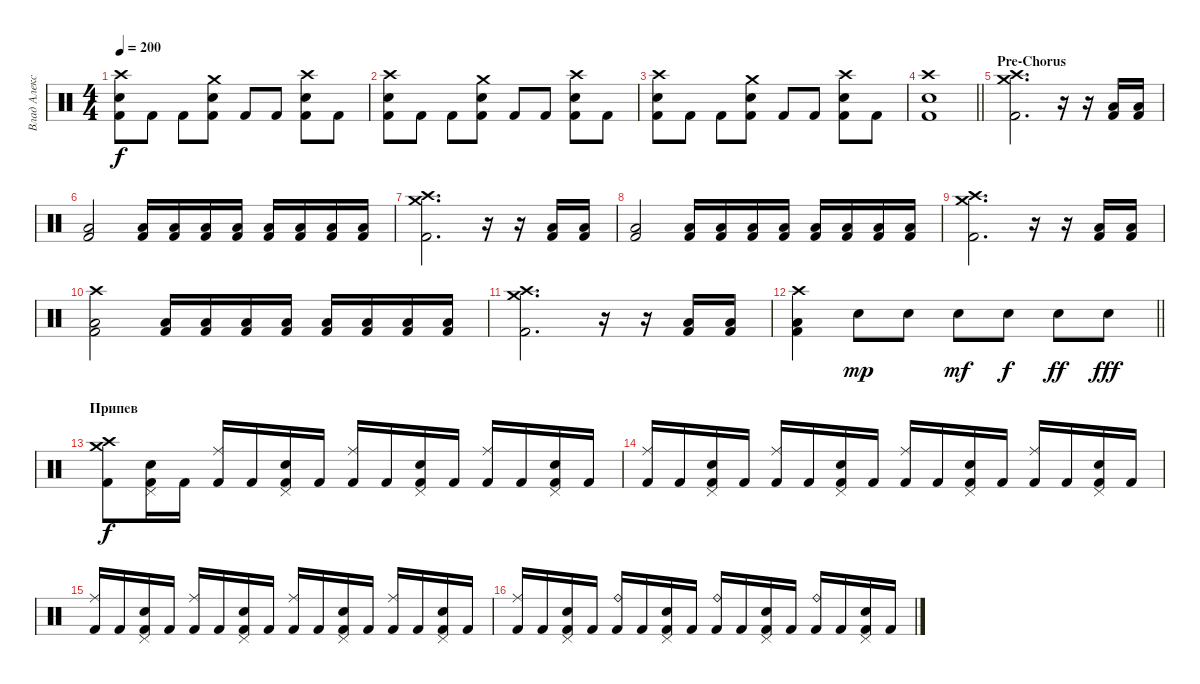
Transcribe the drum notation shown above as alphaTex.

\track ("Влад Алексеенко" "Влад Алекс") {instrument percussion}
\staff {score}
\articulation defaults
\ts (4 4)
\tempo 200
\clef neutral
\ks c
("Crash high (hit)" "Electric Snare (hit)" "Kick (hit) 2").8{dy f} "Kick (hit) 2".8 "Kick (hit) 2".8 ("Crash medium (hit)" "Electric Snare (hit)" "Kick (hit) 2").8 "Kick (hit) 2".8 "Kick (hit) 2".8 ("Crash high (hit)" "Electric Snare (hit)" "Kick (hit) 2").8 "Kick (hit) 2".8 |
("Crash high (hit)" "Electric Snare (hit)" "Kick (hit) 2").8 "Kick (hit) 2".8 "Kick (hit) 2".8 ("Crash medium (hit)" "Electric Snare (hit)" "Kick (hit) 2").8 "Kick (hit) 2".8 "Kick (hit) 2".8 ("Crash high (hit)" "Electric Snare (hit)" "Kick (hit) 2").8 "Kick (hit) 2".8 |
("Crash high (hit)" "Electric Snare (hit)" "Kick (hit) 2").8 "Kick (hit) 2".8 "Kick (hit) 2".8 ("Crash medium (hit)" "Electric Snare (hit)" "Kick (hit) 2").8 "Kick (hit) 2".8 "Kick (hit) 2".8 ("Crash high (hit)" "Electric Snare (hit)" "Kick (hit) 2").8 "Kick (hit) 2".8 |
\barLineRight lightlight
("Crash high (hit)" "Electric Snare (hit)" "Kick (hit) 2").1 |
\section ("" "Pre-Chorus")
("Crash high (hit)" "Crash medium (hit)" "Kick (hit) 2").2{d} r.16 r.16 ("Low Floor Tom (hit)" "Kick (hit) 2").16 ("Low Floor Tom (hit)" "Kick (hit) 2").16 |
("Low Floor Tom (hit)" "Kick (hit) 2").2 ("Low Floor Tom (hit)" "Kick (hit) 2").16 ("Low Floor Tom (hit)" "Kick (hit) 2").16 ("Low Floor Tom (hit)" "Kick (hit) 2").16 ("Low Floor Tom (hit)" "Kick (hit) 2").16 ("Low Floor Tom (hit)" "Kick (hit) 2").16 ("Low Floor Tom (hit)" "Kick (hit) 2").16 ("Low Floor Tom (hit)" "Kick (hit) 2").16 ("Low Floor Tom (hit)" "Kick (hit) 2").16 |
("Crash high (hit)" "Crash medium (hit)" "Kick (hit) 2").2{d} r.16 r.16 ("Low Floor Tom (hit)" "Kick (hit) 2").16 ("Low Floor Tom (hit)" "Kick (hit) 2").16 |
("Low Floor Tom (hit)" "Kick (hit) 2").2 ("Low Floor Tom (hit)" "Kick (hit) 2").16 ("Low Floor Tom (hit)" "Kick (hit) 2").16 ("Low Floor Tom (hit)" "Kick (hit) 2").16 ("Low Floor Tom (hit)" "Kick (hit) 2").16 ("Low Floor Tom (hit)" "Kick (hit) 2").16 ("Low Floor Tom (hit)" "Kick (hit) 2").16 ("Low Floor Tom (hit)" "Kick (hit) 2").16 ("Low Floor Tom (hit)" "Kick (hit) 2").16 |
("Crash high (hit)" "Crash medium (hit)" "Kick (hit) 2").2{d} r.16 r.16 ("Low Floor Tom (hit)" "Kick (hit) 2").16 ("Low Floor Tom (hit)" "Kick (hit) 2").16 |
("Crash high (hit)" "Low Floor Tom (hit)" "Kick (hit) 2").2 ("Low Floor Tom (hit)" "Kick (hit) 2").16 ("Low Floor Tom (hit)" "Kick (hit) 2").16 ("Low Floor Tom (hit)" "Kick (hit) 2").16 ("Low Floor Tom (hit)" "Kick (hit) 2").16 ("Low Floor Tom (hit)" "Kick (hit) 2").16 ("Low Floor Tom (hit)" "Kick (hit) 2").16 ("Low Floor Tom (hit)" "Kick (hit) 2").16 ("Low Floor Tom (hit)" "Kick (hit) 2").16 |
("Crash high (hit)" "Crash medium (hit)" "Kick (hit) 2").2{d} r.16 r.16 ("Low Floor Tom (hit)" "Kick (hit) 2").16 ("Low Floor Tom (hit)" "Kick (hit) 2").16 |
\barLineRight lightlight
("Crash high (hit)" "Low Floor Tom (hit)" "Kick (hit) 2").4 "Electric Snare (hit)".8{dy mp} "Electric Snare (hit)".8 "Electric Snare (hit)".8{dy mf} "Electric Snare (hit)".8{dy f} "Electric Snare (hit)".8{dy ff} "Electric Snare (hit)".8{dy fff} |
\section ("" "Припев")
("Crash high (hit)" "Crash medium (hit)" "Kick (hit) 2").8{dy f} ("Kick (hit) 2" "Electric Snare (hit)" "Pedal Hi-Hat (hit)").16 "Kick (hit) 2".16 ("Kick (hit) 2" "Ride (middle)").16 "Kick (hit) 2".16 ("Kick (hit) 2" "Electric Snare (hit)" "Pedal Hi-Hat (hit)").16 "Kick (hit) 2".16 ("Kick (hit) 2" "Ride (middle)").16 "Kick (hit) 2".16 ("Kick (hit) 2" "Electric Snare (hit)" "Pedal Hi-Hat (hit)").16 "Kick (hit) 2".16 ("Kick (hit) 2" "Ride (middle)").16 "Kick (hit) 2".16 ("Kick (hit) 2" "Electric Snare (hit)" "Pedal Hi-Hat (hit)").16 "Kick (hit) 2".16 |
("Kick (hit) 2" "Ride (middle)").16 "Kick (hit) 2".16 ("Kick (hit) 2" "Electric Snare (hit)" "Pedal Hi-Hat (hit)").16 "Kick (hit) 2".16 ("Kick (hit) 2" "Ride (middle)").16 "Kick (hit) 2".16 ("Kick (hit) 2" "Electric Snare (hit)" "Pedal Hi-Hat (hit)").16 "Kick (hit) 2".16 ("Kick (hit) 2" "Ride (middle)").16 "Kick (hit) 2".16 ("Kick (hit) 2" "Electric Snare (hit)" "Pedal Hi-Hat (hit)").16 "Kick (hit) 2".16 ("Kick (hit) 2" "Ride (middle)").16 "Kick (hit) 2".16 ("Kick (hit) 2" "Electric Snare (hit)" "Pedal Hi-Hat (hit)").16 "Kick (hit) 2".16 |
("Kick (hit) 2" "Ride (middle)").16 "Kick (hit) 2".16 ("Kick (hit) 2" "Electric Snare (hit)" "Pedal Hi-Hat (hit)").16 "Kick (hit) 2".16 ("Kick (hit) 2" "Ride (middle)").16 "Kick (hit) 2".16 ("Kick (hit) 2" "Electric Snare (hit)" "Pedal Hi-Hat (hit)").16 "Kick (hit) 2".16 ("Kick (hit) 2" "Ride (middle)").16 "Kick (hit) 2".16 ("Kick (hit) 2" "Electric Snare (hit)" "Pedal Hi-Hat (hit)").16 "Kick (hit) 2".16 ("Kick (hit) 2" "Ride (middle)").16 "Kick (hit) 2".16 ("Kick (hit) 2" "Electric Snare (hit)" "Pedal Hi-Hat (hit)").16 "Kick (hit) 2".16 |
("Kick (hit) 2" "Ride (middle)").16 "Kick (hit) 2".16 ("Kick (hit) 2" "Electric Snare (hit)" "Pedal Hi-Hat (hit)").16 "Kick (hit) 2".16 ("Kick (hit) 2" "Ride (bell)").16 "Kick (hit) 2".16 ("Kick (hit) 2" "Electric Snare (hit)" "Pedal Hi-Hat (hit)").16 "Kick (hit) 2".16 ("Kick (hit) 2" "Ride (bell)").16 "Kick (hit) 2".16 ("Kick (hit) 2" "Electric Snare (hit)" "Pedal Hi-Hat (hit)").16 "Kick (hit) 2".16 ("Kick (hit) 2" "Ride (bell)").16 "Kick (hit) 2".16 ("Kick (hit) 2" "Electric Snare (hit)" "Pedal Hi-Hat (hit)").16 "Kick (hit) 2".16
